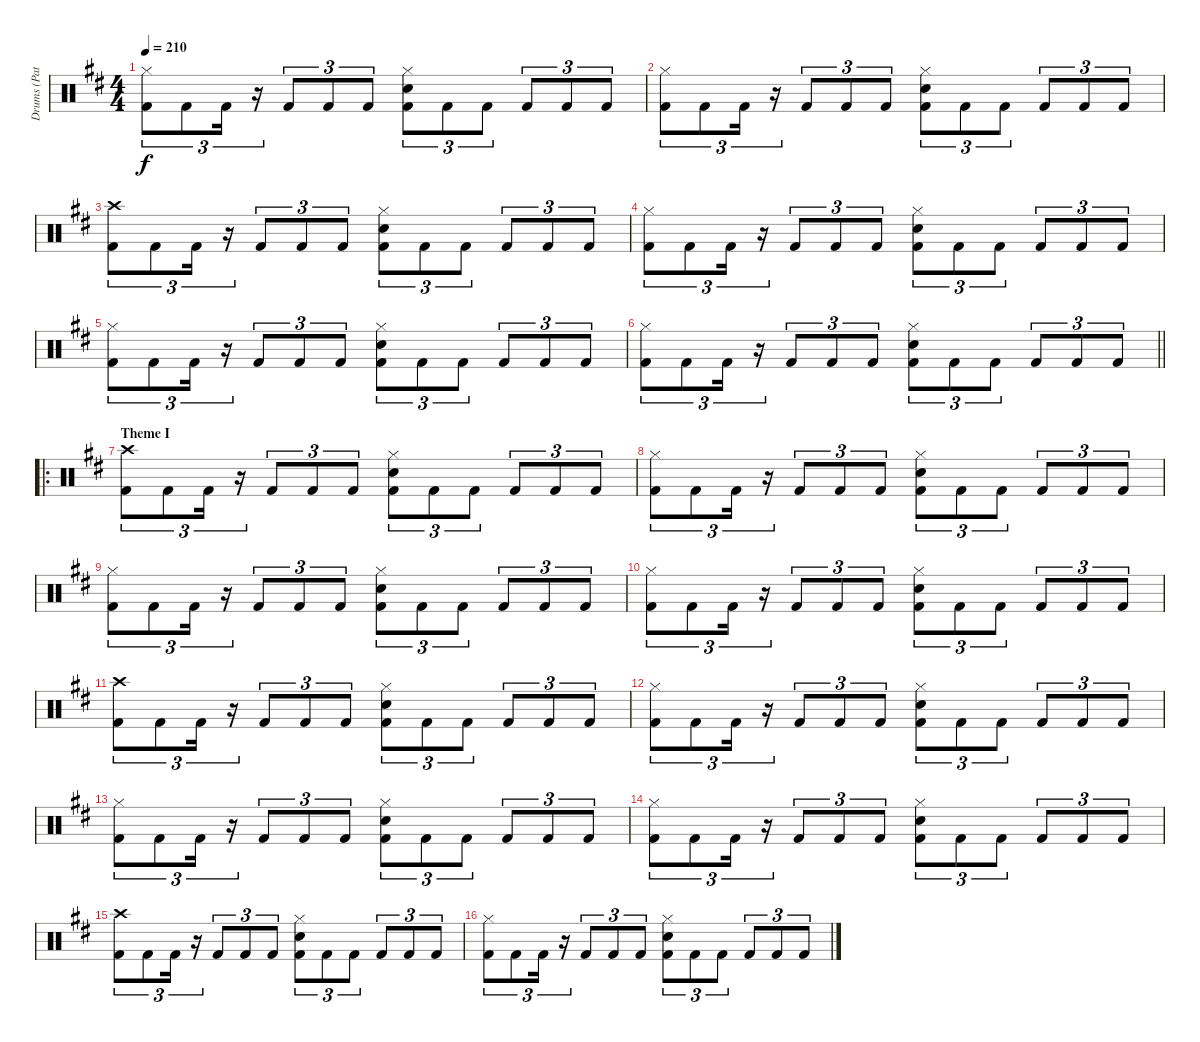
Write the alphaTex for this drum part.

\track ("Drums (Patrick Johansson)" "Drums (Pat") {instrument percussion}
\staff {score}
\articulation defaults
\ts (4 4)
\tempo 210
\clef neutral
\ks d
("Hi-Hat (closed)" "Kick (hit) 2").8{tu (3 2) dy f} "Kick (hit) 2".8{tu (3 2)} "Kick (hit) 2".16{tu (3 2)} r.16{tu (3 2)} "Kick (hit) 2".8{tu (3 2)} "Kick (hit) 2".8{tu (3 2)} "Kick (hit) 2".8{tu (3 2)} ("Electric Snare (hit)" "Hi-Hat (closed)" "Kick (hit) 2").8{tu (3 2)} "Kick (hit) 2".8{tu (3 2)} "Kick (hit) 2".8{tu (3 2)} "Kick (hit) 2".8{tu (3 2)} "Kick (hit) 2".8{tu (3 2)} "Kick (hit) 2".8{tu (3 2)} |
("Hi-Hat (closed)" "Kick (hit) 2").8{tu (3 2)} "Kick (hit) 2".8{tu (3 2)} "Kick (hit) 2".16{tu (3 2)} r.16{tu (3 2)} "Kick (hit) 2".8{tu (3 2)} "Kick (hit) 2".8{tu (3 2)} "Kick (hit) 2".8{tu (3 2)} ("Electric Snare (hit)" "Hi-Hat (closed)" "Kick (hit) 2").8{tu (3 2)} "Kick (hit) 2".8{tu (3 2)} "Kick (hit) 2".8{tu (3 2)} "Kick (hit) 2".8{tu (3 2)} "Kick (hit) 2".8{tu (3 2)} "Kick (hit) 2".8{tu (3 2)} |
("Crash high (hit)" "Kick (hit) 2").8{tu (3 2)} "Kick (hit) 2".8{tu (3 2)} "Kick (hit) 2".16{tu (3 2)} r.16{tu (3 2)} "Kick (hit) 2".8{tu (3 2)} "Kick (hit) 2".8{tu (3 2)} "Kick (hit) 2".8{tu (3 2)} ("Electric Snare (hit)" "Hi-Hat (closed)" "Kick (hit) 2").8{tu (3 2)} "Kick (hit) 2".8{tu (3 2)} "Kick (hit) 2".8{tu (3 2)} "Kick (hit) 2".8{tu (3 2)} "Kick (hit) 2".8{tu (3 2)} "Kick (hit) 2".8{tu (3 2)} |
("Hi-Hat (closed)" "Kick (hit) 2").8{tu (3 2)} "Kick (hit) 2".8{tu (3 2)} "Kick (hit) 2".16{tu (3 2)} r.16{tu (3 2)} "Kick (hit) 2".8{tu (3 2)} "Kick (hit) 2".8{tu (3 2)} "Kick (hit) 2".8{tu (3 2)} ("Electric Snare (hit)" "Hi-Hat (closed)" "Kick (hit) 2").8{tu (3 2)} "Kick (hit) 2".8{tu (3 2)} "Kick (hit) 2".8{tu (3 2)} "Kick (hit) 2".8{tu (3 2)} "Kick (hit) 2".8{tu (3 2)} "Kick (hit) 2".8{tu (3 2)} |
("Hi-Hat (closed)" "Kick (hit) 2").8{tu (3 2)} "Kick (hit) 2".8{tu (3 2)} "Kick (hit) 2".16{tu (3 2)} r.16{tu (3 2)} "Kick (hit) 2".8{tu (3 2)} "Kick (hit) 2".8{tu (3 2)} "Kick (hit) 2".8{tu (3 2)} ("Electric Snare (hit)" "Hi-Hat (closed)" "Kick (hit) 2").8{tu (3 2)} "Kick (hit) 2".8{tu (3 2)} "Kick (hit) 2".8{tu (3 2)} "Kick (hit) 2".8{tu (3 2)} "Kick (hit) 2".8{tu (3 2)} "Kick (hit) 2".8{tu (3 2)} |
\barLineRight lightlight
("Hi-Hat (closed)" "Kick (hit) 2").8{tu (3 2)} "Kick (hit) 2".8{tu (3 2)} "Kick (hit) 2".16{tu (3 2)} r.16{tu (3 2)} "Kick (hit) 2".8{tu (3 2)} "Kick (hit) 2".8{tu (3 2)} "Kick (hit) 2".8{tu (3 2)} ("Electric Snare (hit)" "Hi-Hat (closed)" "Kick (hit) 2").8{tu (3 2)} "Kick (hit) 2".8{tu (3 2)} "Kick (hit) 2".8{tu (3 2)} "Kick (hit) 2".8{tu (3 2)} "Kick (hit) 2".8{tu (3 2)} "Kick (hit) 2".8{tu (3 2)} |
\ro
\section ("" "Theme I")
("Crash high (hit)" "Kick (hit) 2").8{tu (3 2)} "Kick (hit) 2".8{tu (3 2)} "Kick (hit) 2".16{tu (3 2)} r.16{tu (3 2)} "Kick (hit) 2".8{tu (3 2)} "Kick (hit) 2".8{tu (3 2)} "Kick (hit) 2".8{tu (3 2)} ("Electric Snare (hit)" "Hi-Hat (closed)" "Kick (hit) 2").8{tu (3 2)} "Kick (hit) 2".8{tu (3 2)} "Kick (hit) 2".8{tu (3 2)} "Kick (hit) 2".8{tu (3 2)} "Kick (hit) 2".8{tu (3 2)} "Kick (hit) 2".8{tu (3 2)} |
("Hi-Hat (closed)" "Kick (hit) 2").8{tu (3 2)} "Kick (hit) 2".8{tu (3 2)} "Kick (hit) 2".16{tu (3 2)} r.16{tu (3 2)} "Kick (hit) 2".8{tu (3 2)} "Kick (hit) 2".8{tu (3 2)} "Kick (hit) 2".8{tu (3 2)} ("Electric Snare (hit)" "Hi-Hat (closed)" "Kick (hit) 2").8{tu (3 2)} "Kick (hit) 2".8{tu (3 2)} "Kick (hit) 2".8{tu (3 2)} "Kick (hit) 2".8{tu (3 2)} "Kick (hit) 2".8{tu (3 2)} "Kick (hit) 2".8{tu (3 2)} |
("Hi-Hat (closed)" "Kick (hit) 2").8{tu (3 2)} "Kick (hit) 2".8{tu (3 2)} "Kick (hit) 2".16{tu (3 2)} r.16{tu (3 2)} "Kick (hit) 2".8{tu (3 2)} "Kick (hit) 2".8{tu (3 2)} "Kick (hit) 2".8{tu (3 2)} ("Electric Snare (hit)" "Hi-Hat (closed)" "Kick (hit) 2").8{tu (3 2)} "Kick (hit) 2".8{tu (3 2)} "Kick (hit) 2".8{tu (3 2)} "Kick (hit) 2".8{tu (3 2)} "Kick (hit) 2".8{tu (3 2)} "Kick (hit) 2".8{tu (3 2)} |
("Hi-Hat (closed)" "Kick (hit) 2").8{tu (3 2)} "Kick (hit) 2".8{tu (3 2)} "Kick (hit) 2".16{tu (3 2)} r.16{tu (3 2)} "Kick (hit) 2".8{tu (3 2)} "Kick (hit) 2".8{tu (3 2)} "Kick (hit) 2".8{tu (3 2)} ("Electric Snare (hit)" "Hi-Hat (closed)" "Kick (hit) 2").8{tu (3 2)} "Kick (hit) 2".8{tu (3 2)} "Kick (hit) 2".8{tu (3 2)} "Kick (hit) 2".8{tu (3 2)} "Kick (hit) 2".8{tu (3 2)} "Kick (hit) 2".8{tu (3 2)} |
("Crash high (hit)" "Kick (hit) 2").8{tu (3 2)} "Kick (hit) 2".8{tu (3 2)} "Kick (hit) 2".16{tu (3 2)} r.16{tu (3 2)} "Kick (hit) 2".8{tu (3 2)} "Kick (hit) 2".8{tu (3 2)} "Kick (hit) 2".8{tu (3 2)} ("Electric Snare (hit)" "Hi-Hat (closed)" "Kick (hit) 2").8{tu (3 2)} "Kick (hit) 2".8{tu (3 2)} "Kick (hit) 2".8{tu (3 2)} "Kick (hit) 2".8{tu (3 2)} "Kick (hit) 2".8{tu (3 2)} "Kick (hit) 2".8{tu (3 2)} |
("Hi-Hat (closed)" "Kick (hit) 2").8{tu (3 2)} "Kick (hit) 2".8{tu (3 2)} "Kick (hit) 2".16{tu (3 2)} r.16{tu (3 2)} "Kick (hit) 2".8{tu (3 2)} "Kick (hit) 2".8{tu (3 2)} "Kick (hit) 2".8{tu (3 2)} ("Electric Snare (hit)" "Hi-Hat (closed)" "Kick (hit) 2").8{tu (3 2)} "Kick (hit) 2".8{tu (3 2)} "Kick (hit) 2".8{tu (3 2)} "Kick (hit) 2".8{tu (3 2)} "Kick (hit) 2".8{tu (3 2)} "Kick (hit) 2".8{tu (3 2)} |
("Hi-Hat (closed)" "Kick (hit) 2").8{tu (3 2)} "Kick (hit) 2".8{tu (3 2)} "Kick (hit) 2".16{tu (3 2)} r.16{tu (3 2)} "Kick (hit) 2".8{tu (3 2)} "Kick (hit) 2".8{tu (3 2)} "Kick (hit) 2".8{tu (3 2)} ("Electric Snare (hit)" "Hi-Hat (closed)" "Kick (hit) 2").8{tu (3 2)} "Kick (hit) 2".8{tu (3 2)} "Kick (hit) 2".8{tu (3 2)} "Kick (hit) 2".8{tu (3 2)} "Kick (hit) 2".8{tu (3 2)} "Kick (hit) 2".8{tu (3 2)} |
("Hi-Hat (closed)" "Kick (hit) 2").8{tu (3 2)} "Kick (hit) 2".8{tu (3 2)} "Kick (hit) 2".16{tu (3 2)} r.16{tu (3 2)} "Kick (hit) 2".8{tu (3 2)} "Kick (hit) 2".8{tu (3 2)} "Kick (hit) 2".8{tu (3 2)} ("Electric Snare (hit)" "Hi-Hat (closed)" "Kick (hit) 2").8{tu (3 2)} "Kick (hit) 2".8{tu (3 2)} "Kick (hit) 2".8{tu (3 2)} "Kick (hit) 2".8{tu (3 2)} "Kick (hit) 2".8{tu (3 2)} "Kick (hit) 2".8{tu (3 2)} |
("Crash high (hit)" "Kick (hit) 2").8{tu (3 2)} "Kick (hit) 2".8{tu (3 2)} "Kick (hit) 2".16{tu (3 2)} r.16{tu (3 2)} "Kick (hit) 2".8{tu (3 2)} "Kick (hit) 2".8{tu (3 2)} "Kick (hit) 2".8{tu (3 2)} ("Electric Snare (hit)" "Hi-Hat (closed)" "Kick (hit) 2").8{tu (3 2)} "Kick (hit) 2".8{tu (3 2)} "Kick (hit) 2".8{tu (3 2)} "Kick (hit) 2".8{tu (3 2)} "Kick (hit) 2".8{tu (3 2)} "Kick (hit) 2".8{tu (3 2)} |
("Hi-Hat (closed)" "Kick (hit) 2").8{tu (3 2)} "Kick (hit) 2".8{tu (3 2)} "Kick (hit) 2".16{tu (3 2)} r.16{tu (3 2)} "Kick (hit) 2".8{tu (3 2)} "Kick (hit) 2".8{tu (3 2)} "Kick (hit) 2".8{tu (3 2)} ("Electric Snare (hit)" "Hi-Hat (closed)" "Kick (hit) 2").8{tu (3 2)} "Kick (hit) 2".8{tu (3 2)} "Kick (hit) 2".8{tu (3 2)} "Kick (hit) 2".8{tu (3 2)} "Kick (hit) 2".8{tu (3 2)} "Kick (hit) 2".8{tu (3 2)}
